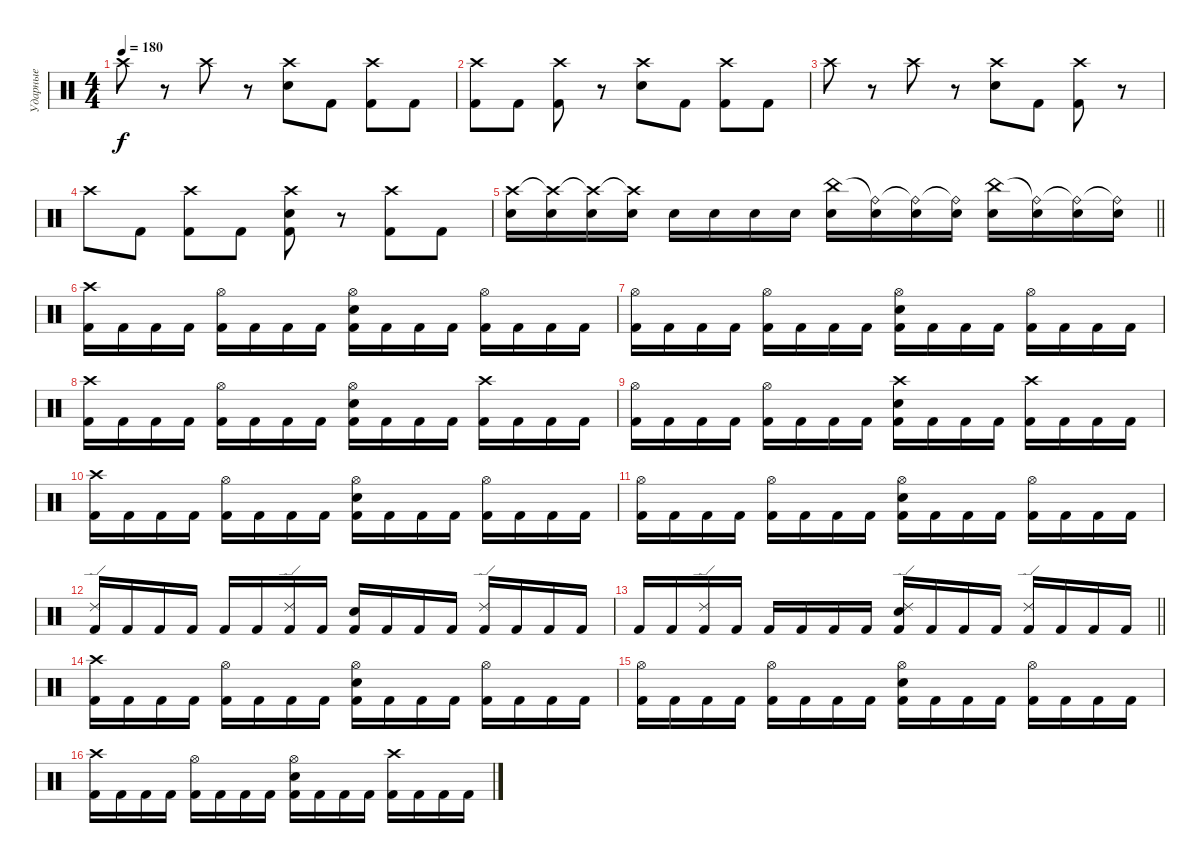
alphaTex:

\track ("Ударные" "Ударные") {instrument percussion}
\staff {score}
\articulation defaults
\ts (4 4)
\tempo 180
\clef neutral
\ks c "Crash high (hit)".8{dy f}
r.8 "Crash high (hit)".8 r.8 ("Crash high (hit)" "Electric Snare (hit)").8 "Kick (hit) 2".8 ("Crash high (hit)" "Kick (hit) 2").8 "Kick (hit) 2".8 |
("Crash high (hit)" "Kick (hit) 2").8 "Kick (hit) 2".8 ("Crash high (hit)" "Kick (hit) 2").8 r.8 ("Crash high (hit)" "Electric Snare (hit)").8 "Kick (hit) 2".8 ("Crash high (hit)" "Kick (hit) 2").8 "Kick (hit) 2".8 |
"Crash high (hit)".8 r.8 "Crash high (hit)".8 r.8 ("Crash high (hit)" "Electric Snare (hit)").8 "Kick (hit) 2".8 ("Crash high (hit)" "Kick (hit) 2").8 r.8 |
"Crash high (hit)".8 "Kick (hit) 2".8 ("Crash high (hit)" "Kick (hit) 2").8 "Kick (hit) 2".8 ("Crash high (hit)" "Electric Snare (hit)" "Kick (hit) 2").8 r.8 ("Crash high (hit)" "Kick (hit) 2").8 "Kick (hit) 2".8 |
\barLineRight lightlight
("Crash high (hit)" "Electric Snare (hit)").16 ("Crash high (hit)"{t} "Electric Snare (hit)").16 ("Crash high (hit)"{t} "Electric Snare (hit)").16 ("Crash high (hit)"{t} "Electric Snare (hit)").16 "Electric Snare (hit)".16 "Electric Snare (hit)".16 "Electric Snare (hit)".16 "Electric Snare (hit)".16 ("China (hit)" "Snare (hit) 2").16 ("Ride (bell)"{t} "Snare (hit) 2").16 ("Ride (bell)"{t} "Snare (hit) 2").16 ("Ride (bell)"{t} "Snare (hit) 2").16 ("China (hit)" "Snare (hit) 2").16 ("Ride (bell)"{t} "Snare (hit) 2").16 ("Ride (bell)"{t} "Snare (hit) 2").16 ("Ride (bell)"{t} "Snare (hit) 2").16 |
\section ("" "")
("Crash high (hit)" "Kick (hit) 2").16 "Kick (hit) 2".16 "Kick (hit) 2".16 "Kick (hit) 2".16 ("Hi-Hat (open)" "Kick (hit) 2").16 "Kick (hit) 2".16 "Kick (hit) 2".16 "Kick (hit) 2".16 ("Hi-Hat (open)" "Electric Snare (hit)" "Kick (hit) 2").16 "Kick (hit) 2".16 "Kick (hit) 2".16 "Kick (hit) 2".16 ("Hi-Hat (open)" "Kick (hit) 2").16 "Kick (hit) 2".16 "Kick (hit) 2".16 "Kick (hit) 2".16 |
("Hi-Hat (open)" "Kick (hit) 2").16 "Kick (hit) 2".16 "Kick (hit) 2".16 "Kick (hit) 2".16 ("Hi-Hat (open)" "Kick (hit) 2").16 "Kick (hit) 2".16 "Kick (hit) 2".16 "Kick (hit) 2".16 ("Hi-Hat (open)" "Electric Snare (hit)" "Kick (hit) 2").16 "Kick (hit) 2".16 "Kick (hit) 2".16 "Kick (hit) 2".16 ("Hi-Hat (open)" "Kick (hit) 2").16 "Kick (hit) 2".16 "Kick (hit) 2".16 "Kick (hit) 2".16 |
("Crash high (hit)" "Kick (hit) 2").16 "Kick (hit) 2".16 "Kick (hit) 2".16 "Kick (hit) 2".16 ("Hi-Hat (open)" "Kick (hit) 2").16 "Kick (hit) 2".16 "Kick (hit) 2".16 "Kick (hit) 2".16 ("Hi-Hat (open)" "Electric Snare (hit)" "Kick (hit) 2").16 "Kick (hit) 2".16 "Kick (hit) 2".16 "Kick (hit) 2".16 ("Crash high (hit)" "Kick (hit) 2").16 "Kick (hit) 2".16 "Kick (hit) 2".16 "Kick (hit) 2".16 |
("Hi-Hat (open)" "Kick (hit) 2").16 "Kick (hit) 2".16 "Kick (hit) 2".16 "Kick (hit) 2".16 ("Hi-Hat (open)" "Kick (hit) 2").16 "Kick (hit) 2".16 "Kick (hit) 2".16 "Kick (hit) 2".16 ("Crash high (hit)" "Electric Snare (hit)" "Kick (hit) 2").16 "Kick (hit) 2".16 "Kick (hit) 2".16 "Kick (hit) 2".16 ("Crash high (hit)" "Kick (hit) 2").16 "Kick (hit) 2".16 "Kick (hit) 2".16 "Kick (hit) 2".16 |
("Crash high (hit)" "Kick (hit) 2").16 "Kick (hit) 2".16 "Kick (hit) 2".16 "Kick (hit) 2".16 ("Hi-Hat (open)" "Kick (hit) 2").16 "Kick (hit) 2".16 "Kick (hit) 2".16 "Kick (hit) 2".16 ("Hi-Hat (open)" "Electric Snare (hit)" "Kick (hit) 2").16 "Kick (hit) 2".16 "Kick (hit) 2".16 "Kick (hit) 2".16 ("Hi-Hat (open)" "Kick (hit) 2").16 "Kick (hit) 2".16 "Kick (hit) 2".16 "Kick (hit) 2".16 |
("Hi-Hat (open)" "Kick (hit) 2").16 "Kick (hit) 2".16 "Kick (hit) 2".16 "Kick (hit) 2".16 ("Hi-Hat (open)" "Kick (hit) 2").16 "Kick (hit) 2".16 "Kick (hit) 2".16 "Kick (hit) 2".16 ("Hi-Hat (open)" "Electric Snare (hit)" "Kick (hit) 2").16 "Kick (hit) 2".16 "Kick (hit) 2".16 "Kick (hit) 2".16 ("Hi-Hat (open)" "Kick (hit) 2").16 "Kick (hit) 2".16 "Kick (hit) 2".16 "Kick (hit) 2".16 |
("Ride (edge) 2" "Kick (hit) 2").16 "Kick (hit) 2".16 "Kick (hit) 2".16 "Kick (hit) 2".16 "Kick (hit) 2".16 "Kick (hit) 2".16 ("Ride (edge) 2" "Kick (hit) 2").16 "Kick (hit) 2".16 ("Electric Snare (hit)" "Kick (hit) 2").16 "Kick (hit) 2".16 "Kick (hit) 2".16 "Kick (hit) 2".16 ("Ride (edge) 2" "Kick (hit) 2").16 "Kick (hit) 2".16 "Kick (hit) 2".16 "Kick (hit) 2".16 |
\barLineRight lightlight "Kick (hit) 2".16 "Kick (hit) 2".16
("Ride (edge) 2" "Kick (hit) 2").16 "Kick (hit) 2".16 "Kick (hit) 2".16 "Kick (hit) 2".16 "Kick (hit) 2".16 "Kick (hit) 2".16 ("Ride (edge) 2" "Electric Snare (hit)" "Kick (hit) 2").16 "Kick (hit) 2".16 "Kick (hit) 2".16 "Kick (hit) 2".16 ("Ride (edge) 2" "Kick (hit) 2").16 "Kick (hit) 2".16 "Kick (hit) 2".16 "Kick (hit) 2".16 |
("Crash high (hit)" "Kick (hit) 2").16 "Kick (hit) 2".16 "Kick (hit) 2".16 "Kick (hit) 2".16 ("Hi-Hat (open)" "Kick (hit) 2").16 "Kick (hit) 2".16 "Kick (hit) 2".16 "Kick (hit) 2".16 ("Hi-Hat (open)" "Electric Snare (hit)" "Kick (hit) 2").16 "Kick (hit) 2".16 "Kick (hit) 2".16 "Kick (hit) 2".16 ("Hi-Hat (open)" "Kick (hit) 2").16 "Kick (hit) 2".16 "Kick (hit) 2".16 "Kick (hit) 2".16 |
("Hi-Hat (open)" "Kick (hit) 2").16 "Kick (hit) 2".16 "Kick (hit) 2".16 "Kick (hit) 2".16 ("Hi-Hat (open)" "Kick (hit) 2").16 "Kick (hit) 2".16 "Kick (hit) 2".16 "Kick (hit) 2".16 ("Hi-Hat (open)" "Electric Snare (hit)" "Kick (hit) 2").16 "Kick (hit) 2".16 "Kick (hit) 2".16 "Kick (hit) 2".16 ("Hi-Hat (open)" "Kick (hit) 2").16 "Kick (hit) 2".16 "Kick (hit) 2".16 "Kick (hit) 2".16 |
("Crash high (hit)" "Kick (hit) 2").16 "Kick (hit) 2".16 "Kick (hit) 2".16 "Kick (hit) 2".16 ("Hi-Hat (open)" "Kick (hit) 2").16 "Kick (hit) 2".16 "Kick (hit) 2".16 "Kick (hit) 2".16 ("Hi-Hat (open)" "Electric Snare (hit)" "Kick (hit) 2").16 "Kick (hit) 2".16 "Kick (hit) 2".16 "Kick (hit) 2".16 ("Crash high (hit)" "Kick (hit) 2").16 "Kick (hit) 2".16 "Kick (hit) 2".16 "Kick (hit) 2".16
